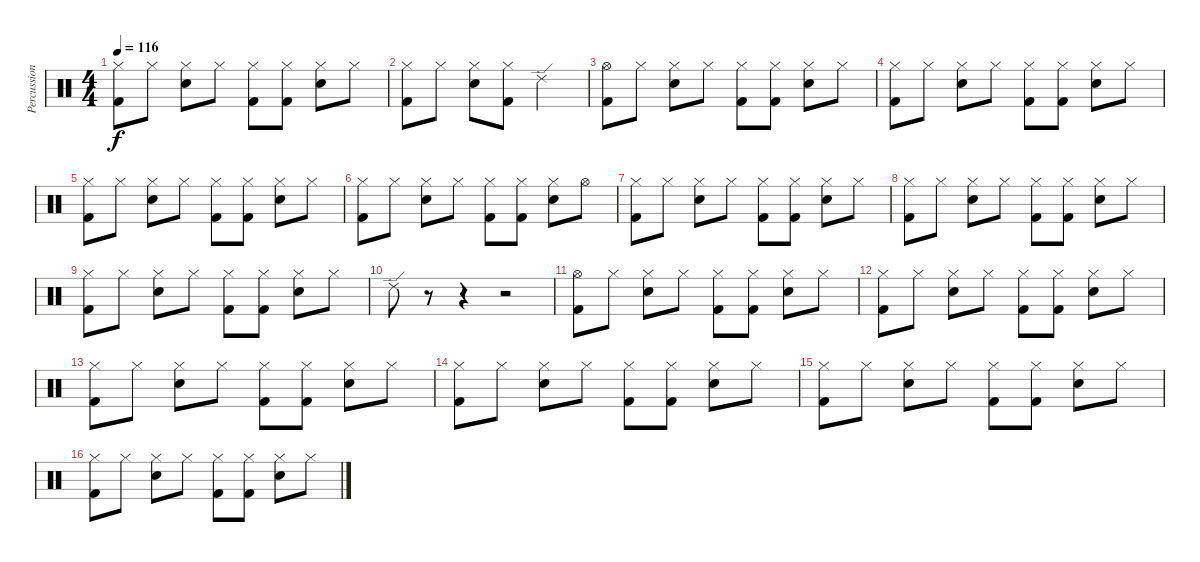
\track ("Percussion" "Percussion") {instrument percussion}
\staff {score}
\articulation defaults
\ts (4 4)
\tempo 116
\clef neutral
\ks c
("Hi-Hat (closed)" "Kick (hit) 2").8{dy f} "Hi-Hat (closed)".8 ("Hi-Hat (closed)" "Snare (hit) 2").8 "Hi-Hat (closed)".8 ("Hi-Hat (closed)" "Kick (hit) 2").8 ("Hi-Hat (closed)" "Kick (hit) 2").8 ("Hi-Hat (closed)" "Snare (hit) 2").8 "Hi-Hat (closed)".8 |
("Hi-Hat (closed)" "Kick (hit) 2").8 "Hi-Hat (closed)".8 ("Hi-Hat (closed)" "Snare (hit) 2").8 ("Hi-Hat (closed)" "Kick (hit) 2").8 "Ride (edge) 2".2 |
("Hi-Hat (open)" "Kick (hit) 2").8 "Hi-Hat (closed)".8 ("Hi-Hat (closed)" "Snare (hit) 2").8 "Hi-Hat (closed)".8 ("Hi-Hat (closed)" "Kick (hit) 2").8 ("Hi-Hat (closed)" "Kick (hit) 2").8 ("Hi-Hat (closed)" "Snare (hit) 2").8 "Hi-Hat (closed)".8 |
("Hi-Hat (closed)" "Kick (hit) 2").8 "Hi-Hat (closed)".8 ("Hi-Hat (closed)" "Snare (hit) 2").8 "Hi-Hat (closed)".8 ("Hi-Hat (closed)" "Kick (hit) 2").8 ("Hi-Hat (closed)" "Kick (hit) 2").8 ("Hi-Hat (closed)" "Snare (hit) 2").8 "Hi-Hat (closed)".8 |
("Hi-Hat (closed)" "Kick (hit) 2").8 "Hi-Hat (closed)".8 ("Hi-Hat (closed)" "Snare (hit) 2").8 "Hi-Hat (closed)".8 ("Hi-Hat (closed)" "Kick (hit) 2").8 ("Hi-Hat (closed)" "Kick (hit) 2").8 ("Hi-Hat (closed)" "Snare (hit) 2").8 "Hi-Hat (closed)".8 |
("Hi-Hat (closed)" "Kick (hit) 2").8 "Hi-Hat (closed)".8 ("Hi-Hat (closed)" "Snare (hit) 2").8 "Hi-Hat (closed)".8 ("Hi-Hat (closed)" "Kick (hit) 2").8 ("Hi-Hat (closed)" "Kick (hit) 2").8 ("Hi-Hat (closed)" "Snare (hit) 2").8 "Hi-Hat (open)".8 |
("Hi-Hat (closed)" "Kick (hit) 2").8 "Hi-Hat (closed)".8 ("Hi-Hat (closed)" "Snare (hit) 2").8 "Hi-Hat (closed)".8 ("Hi-Hat (closed)" "Kick (hit) 2").8 ("Hi-Hat (closed)" "Kick (hit) 2").8 ("Hi-Hat (closed)" "Snare (hit) 2").8 "Hi-Hat (closed)".8 |
("Hi-Hat (closed)" "Kick (hit) 2").8 "Hi-Hat (closed)".8 ("Hi-Hat (closed)" "Snare (hit) 2").8 "Hi-Hat (closed)".8 ("Hi-Hat (closed)" "Kick (hit) 2").8 ("Hi-Hat (closed)" "Kick (hit) 2").8 ("Hi-Hat (closed)" "Snare (hit) 2").8 "Hi-Hat (closed)".8 |
("Hi-Hat (closed)" "Kick (hit) 2").8 "Hi-Hat (closed)".8 ("Hi-Hat (closed)" "Snare (hit) 2").8 "Hi-Hat (closed)".8 ("Hi-Hat (closed)" "Kick (hit) 2").8 ("Hi-Hat (closed)" "Kick (hit) 2").8 ("Hi-Hat (closed)" "Snare (hit) 2").8 "Hi-Hat (closed)".8 |
"Ride (edge) 2".8 r.8 r.4 r.2 |
("Hi-Hat (open)" "Kick (hit) 2").8 "Hi-Hat (closed)".8 ("Hi-Hat (closed)" "Snare (hit) 2").8 "Hi-Hat (closed)".8 ("Hi-Hat (closed)" "Kick (hit) 2").8 ("Hi-Hat (closed)" "Kick (hit) 2").8 ("Hi-Hat (closed)" "Snare (hit) 2").8 "Hi-Hat (closed)".8 |
("Hi-Hat (closed)" "Kick (hit) 2").8 "Hi-Hat (closed)".8 ("Hi-Hat (closed)" "Snare (hit) 2").8 "Hi-Hat (closed)".8 ("Hi-Hat (closed)" "Kick (hit) 2").8 ("Hi-Hat (closed)" "Kick (hit) 2").8 ("Hi-Hat (closed)" "Snare (hit) 2").8 "Hi-Hat (closed)".8 |
("Hi-Hat (closed)" "Kick (hit) 2").8 "Hi-Hat (closed)".8 ("Hi-Hat (closed)" "Snare (hit) 2").8 "Hi-Hat (closed)".8 ("Hi-Hat (closed)" "Kick (hit) 2").8 ("Hi-Hat (closed)" "Kick (hit) 2").8 ("Hi-Hat (closed)" "Snare (hit) 2").8 "Hi-Hat (closed)".8 |
("Hi-Hat (closed)" "Kick (hit) 2").8 "Hi-Hat (closed)".8 ("Hi-Hat (closed)" "Snare (hit) 2").8 "Hi-Hat (closed)".8 ("Hi-Hat (closed)" "Kick (hit) 2").8 ("Hi-Hat (closed)" "Kick (hit) 2").8 ("Hi-Hat (closed)" "Snare (hit) 2").8 "Hi-Hat (closed)".8 |
("Hi-Hat (closed)" "Kick (hit) 2").8 "Hi-Hat (closed)".8 ("Hi-Hat (closed)" "Snare (hit) 2").8 "Hi-Hat (closed)".8 ("Hi-Hat (closed)" "Kick (hit) 2").8 ("Hi-Hat (closed)" "Kick (hit) 2").8 ("Hi-Hat (closed)" "Snare (hit) 2").8 "Hi-Hat (closed)".8 |
("Hi-Hat (closed)" "Kick (hit) 2").8 "Hi-Hat (closed)".8 ("Hi-Hat (closed)" "Snare (hit) 2").8 "Hi-Hat (closed)".8 ("Hi-Hat (closed)" "Kick (hit) 2").8 ("Hi-Hat (closed)" "Kick (hit) 2").8 ("Hi-Hat (closed)" "Snare (hit) 2").8 "Hi-Hat (closed)".8
